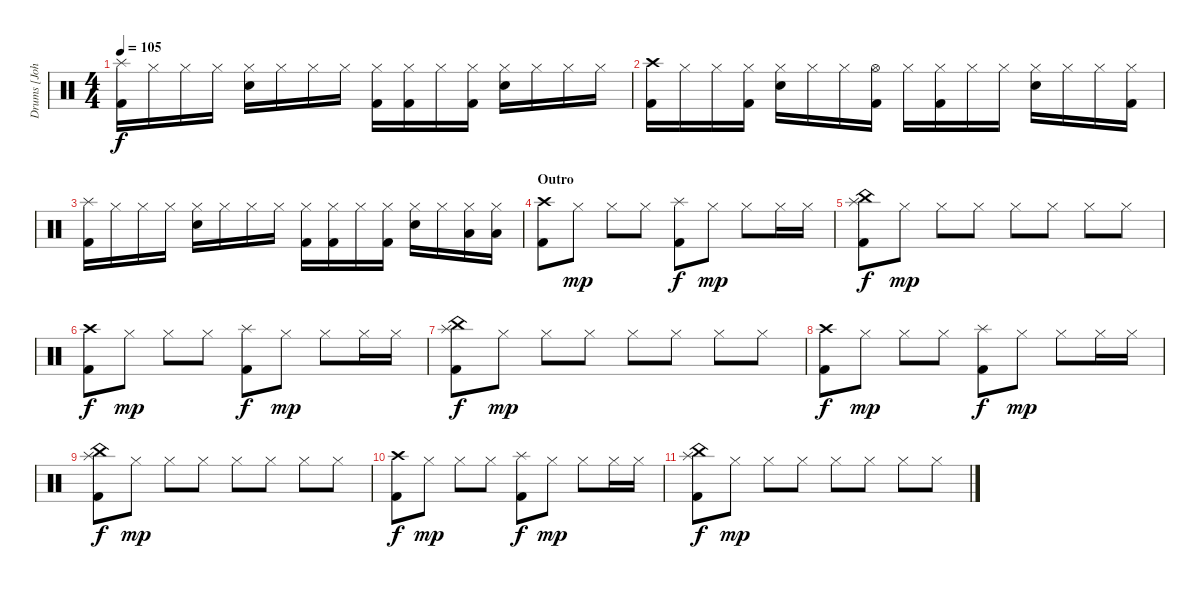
\track ("Drums [John Otto]" "Drums [Joh") {instrument percussion}
\staff {score}
\articulation defaults
\ts (4 4)
\tempo 105
\clef neutral
\ks c
("Splash (hit)" "Kick (hit) 2").16{dy f} "Hi-Hat (closed)".16 "Hi-Hat (closed)".16 "Hi-Hat (closed)".16 ("Hi-Hat (closed)" "Electric Snare (hit)").16 "Hi-Hat (closed)".16 "Hi-Hat (closed)".16 "Hi-Hat (closed)".16 ("Hi-Hat (closed)" "Kick (hit) 2").16 ("Hi-Hat (closed)" "Kick (hit) 2").16 "Hi-Hat (closed)".16 ("Hi-Hat (closed)" "Kick (hit) 2").16 ("Hi-Hat (closed)" "Electric Snare (hit)").16 "Hi-Hat (closed)".16 "Hi-Hat (closed)".16 "Hi-Hat (closed)".16 |
("Crash high (hit)" "Kick (hit) 2").16 "Hi-Hat (closed)".16 "Hi-Hat (closed)".16 ("Hi-Hat (closed)" "Kick (hit) 2").16 ("Hi-Hat (closed)" "Electric Snare (hit)").16 "Hi-Hat (closed)".16 "Hi-Hat (closed)".16 ("Hi-Hat (open)" "Kick (hit) 2").16 "Hi-Hat (closed)".16 ("Hi-Hat (closed)" "Kick (hit) 2").16 "Hi-Hat (closed)".16 "Hi-Hat (closed)".16 ("Hi-Hat (closed)" "Electric Snare (hit)").16 "Hi-Hat (closed)".16 "Hi-Hat (closed)".16 ("Hi-Hat (closed)" "Kick (hit) 2").16 |
("Splash (hit)" "Kick (hit) 2").16 "Hi-Hat (closed)".16 "Hi-Hat (closed)".16 "Hi-Hat (closed)".16 ("Hi-Hat (closed)" "Electric Snare (hit)").16 "Hi-Hat (closed)".16 "Hi-Hat (closed)".16 "Hi-Hat (closed)".16 ("Hi-Hat (closed)" "Kick (hit) 2").16 ("Hi-Hat (closed)" "Kick (hit) 2").16 "Hi-Hat (closed)".16 ("Hi-Hat (closed)" "Kick (hit) 2").16 ("Hi-Hat (closed)" "Electric Snare (hit)").16 "Hi-Hat (closed)".16 ("Hi-Hat (closed)" "Low Tom (hit)").16 ("Hi-Hat (closed)" "Low Tom (hit)").16 |
\section ("" "Outro")
("Crash high (hit)" "Kick (hit) 2").8 "Hi-Hat (closed)".8{dy mp} "Hi-Hat (closed)".8 "Hi-Hat (closed)".8 ("Splash (hit)" "Kick (hit) 2").8{dy f} "Hi-Hat (closed)".8{dy mp} "Hi-Hat (closed)".8 "Hi-Hat (closed)".16 "Hi-Hat (closed)".16 |
("Splash (hit)" "China (hit)" "Kick (hit) 2").8{dy f} "Hi-Hat (closed)".8{dy mp} "Hi-Hat (closed)".8 "Hi-Hat (closed)".8 "Hi-Hat (closed)".8 "Hi-Hat (closed)".8 "Hi-Hat (closed)".8 "Hi-Hat (closed)".8 |
("Crash high (hit)" "Kick (hit) 2").8{dy f} "Hi-Hat (closed)".8{dy mp} "Hi-Hat (closed)".8 "Hi-Hat (closed)".8 ("Splash (hit)" "Kick (hit) 2").8{dy f} "Hi-Hat (closed)".8{dy mp} "Hi-Hat (closed)".8 "Hi-Hat (closed)".16 "Hi-Hat (closed)".16 |
("Splash (hit)" "China (hit)" "Kick (hit) 2").8{dy f} "Hi-Hat (closed)".8{dy mp} "Hi-Hat (closed)".8 "Hi-Hat (closed)".8 "Hi-Hat (closed)".8 "Hi-Hat (closed)".8 "Hi-Hat (closed)".8 "Hi-Hat (closed)".8 |
("Crash high (hit)" "Kick (hit) 2").8{dy f} "Hi-Hat (closed)".8{dy mp} "Hi-Hat (closed)".8 "Hi-Hat (closed)".8 ("Splash (hit)" "Kick (hit) 2").8{dy f} "Hi-Hat (closed)".8{dy mp} "Hi-Hat (closed)".8 "Hi-Hat (closed)".16 "Hi-Hat (closed)".16 |
("Splash (hit)" "China (hit)" "Kick (hit) 2").8{dy f} "Hi-Hat (closed)".8{dy mp} "Hi-Hat (closed)".8 "Hi-Hat (closed)".8 "Hi-Hat (closed)".8 "Hi-Hat (closed)".8 "Hi-Hat (closed)".8 "Hi-Hat (closed)".8 |
("Crash high (hit)" "Kick (hit) 2").8{dy f} "Hi-Hat (closed)".8{dy mp} "Hi-Hat (closed)".8 "Hi-Hat (closed)".8 ("Splash (hit)" "Kick (hit) 2").8{dy f} "Hi-Hat (closed)".8{dy mp} "Hi-Hat (closed)".8 "Hi-Hat (closed)".16 "Hi-Hat (closed)".16 |
("Splash (hit)" "China (hit)" "Kick (hit) 2").8{dy f} "Hi-Hat (closed)".8{dy mp} "Hi-Hat (closed)".8 "Hi-Hat (closed)".8 "Hi-Hat (closed)".8 "Hi-Hat (closed)".8 "Hi-Hat (closed)".8 "Hi-Hat (closed)".8
